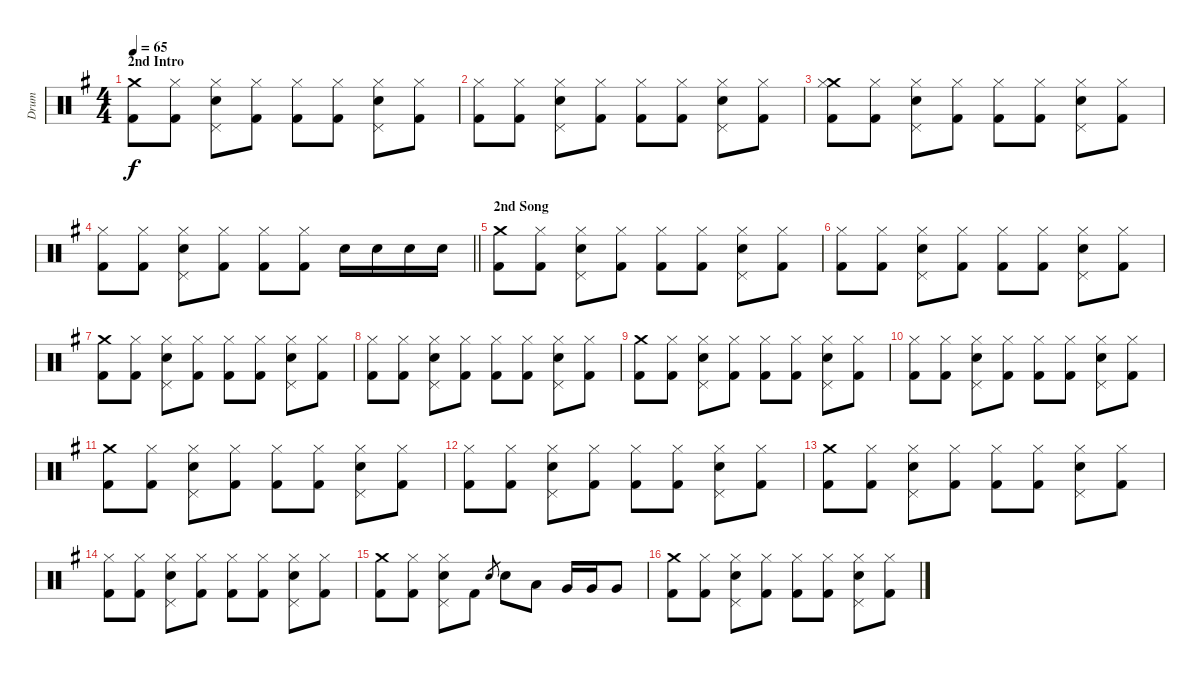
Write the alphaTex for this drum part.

\track ("Drum" "Drum") {instrument percussion}
\staff {score}
\articulation defaults
\ts (4 4)
\section ("" "2nd Intro")
\tempo 65
\clef neutral
\ks g
("Crash medium (hit)" "Kick (hit) 2").8{dy f} ("Hi-Hat (closed)" "Kick (hit) 2").8 ("Pedal Hi-Hat (hit)" "Hi-Hat (closed)" "Electric Snare (hit)").8 ("Hi-Hat (closed)" "Kick (hit) 2").8 ("Hi-Hat (closed)" "Kick (hit) 2").8 ("Hi-Hat (closed)" "Kick (hit) 2").8 ("Pedal Hi-Hat (hit)" "Hi-Hat (closed)" "Electric Snare (hit)").8 ("Hi-Hat (closed)" "Kick (hit) 2").8 |
("Hi-Hat (closed)" "Kick (hit) 2").8 ("Hi-Hat (closed)" "Kick (hit) 2").8 ("Pedal Hi-Hat (hit)" "Hi-Hat (closed)" "Electric Snare (hit)").8 ("Hi-Hat (closed)" "Kick (hit) 2").8 ("Hi-Hat (closed)" "Kick (hit) 2").8 ("Hi-Hat (closed)" "Kick (hit) 2").8 ("Pedal Hi-Hat (hit)" "Hi-Hat (closed)" "Electric Snare (hit)").8 ("Hi-Hat (closed)" "Kick (hit) 2").8 |
("Crash medium (hit)" "Hi-Hat (closed)" "Kick (hit) 2").8 ("Hi-Hat (closed)" "Kick (hit) 2").8 ("Pedal Hi-Hat (hit)" "Hi-Hat (closed)" "Electric Snare (hit)").8 ("Hi-Hat (closed)" "Kick (hit) 2").8 ("Hi-Hat (closed)" "Kick (hit) 2").8 ("Hi-Hat (closed)" "Kick (hit) 2").8 ("Pedal Hi-Hat (hit)" "Hi-Hat (closed)" "Electric Snare (hit)").8 ("Hi-Hat (closed)" "Kick (hit) 2").8 |
\barLineRight lightlight
("Hi-Hat (closed)" "Kick (hit) 2").8 ("Hi-Hat (closed)" "Kick (hit) 2").8 ("Pedal Hi-Hat (hit)" "Hi-Hat (closed)" "Electric Snare (hit)").8 ("Hi-Hat (closed)" "Kick (hit) 2").8 ("Hi-Hat (closed)" "Kick (hit) 2").8 ("Hi-Hat (closed)" "Kick (hit) 2").8 "Electric Snare (hit)".16 "Electric Snare (hit)".16 "Electric Snare (hit)".16 "Electric Snare (hit)".16 |
\section ("" "2nd Song")
("Crash medium (hit)" "Kick (hit) 2").8 ("Hi-Hat (closed)" "Kick (hit) 2").8 ("Pedal Hi-Hat (hit)" "Hi-Hat (closed)" "Electric Snare (hit)").8 ("Hi-Hat (closed)" "Kick (hit) 2").8 ("Hi-Hat (closed)" "Kick (hit) 2").8 ("Hi-Hat (closed)" "Kick (hit) 2").8 ("Pedal Hi-Hat (hit)" "Hi-Hat (closed)" "Electric Snare (hit)").8 ("Hi-Hat (closed)" "Kick (hit) 2").8 |
("Hi-Hat (closed)" "Kick (hit) 2").8 ("Hi-Hat (closed)" "Kick (hit) 2").8 ("Pedal Hi-Hat (hit)" "Hi-Hat (closed)" "Electric Snare (hit)").8 ("Hi-Hat (closed)" "Kick (hit) 2").8 ("Hi-Hat (closed)" "Kick (hit) 2").8 ("Hi-Hat (closed)" "Kick (hit) 2").8 ("Pedal Hi-Hat (hit)" "Hi-Hat (closed)" "Electric Snare (hit)").8 ("Hi-Hat (closed)" "Kick (hit) 2").8 |
("Crash medium (hit)" "Kick (hit) 2").8 ("Hi-Hat (closed)" "Kick (hit) 2").8 ("Pedal Hi-Hat (hit)" "Hi-Hat (closed)" "Electric Snare (hit)").8 ("Hi-Hat (closed)" "Kick (hit) 2").8 ("Hi-Hat (closed)" "Kick (hit) 2").8 ("Hi-Hat (closed)" "Kick (hit) 2").8 ("Pedal Hi-Hat (hit)" "Hi-Hat (closed)" "Electric Snare (hit)").8 ("Hi-Hat (closed)" "Kick (hit) 2").8 |
("Hi-Hat (closed)" "Kick (hit) 2").8 ("Hi-Hat (closed)" "Kick (hit) 2").8 ("Pedal Hi-Hat (hit)" "Hi-Hat (closed)" "Electric Snare (hit)").8 ("Hi-Hat (closed)" "Kick (hit) 2").8 ("Hi-Hat (closed)" "Kick (hit) 2").8 ("Hi-Hat (closed)" "Kick (hit) 2").8 ("Pedal Hi-Hat (hit)" "Hi-Hat (closed)" "Electric Snare (hit)").8 ("Hi-Hat (closed)" "Kick (hit) 2").8 |
("Crash medium (hit)" "Kick (hit) 2").8 ("Hi-Hat (closed)" "Kick (hit) 2").8 ("Pedal Hi-Hat (hit)" "Hi-Hat (closed)" "Electric Snare (hit)").8 ("Hi-Hat (closed)" "Kick (hit) 2").8 ("Hi-Hat (closed)" "Kick (hit) 2").8 ("Hi-Hat (closed)" "Kick (hit) 2").8 ("Pedal Hi-Hat (hit)" "Hi-Hat (closed)" "Electric Snare (hit)").8 ("Hi-Hat (closed)" "Kick (hit) 2").8 |
("Hi-Hat (closed)" "Kick (hit) 2").8 ("Hi-Hat (closed)" "Kick (hit) 2").8 ("Pedal Hi-Hat (hit)" "Hi-Hat (closed)" "Electric Snare (hit)").8 ("Hi-Hat (closed)" "Kick (hit) 2").8 ("Hi-Hat (closed)" "Kick (hit) 2").8 ("Hi-Hat (closed)" "Kick (hit) 2").8 ("Pedal Hi-Hat (hit)" "Hi-Hat (closed)" "Electric Snare (hit)").8 ("Hi-Hat (closed)" "Kick (hit) 2").8 |
("Crash medium (hit)" "Kick (hit) 2").8 ("Hi-Hat (closed)" "Kick (hit) 2").8 ("Pedal Hi-Hat (hit)" "Hi-Hat (closed)" "Electric Snare (hit)").8 ("Hi-Hat (closed)" "Kick (hit) 2").8 ("Hi-Hat (closed)" "Kick (hit) 2").8 ("Hi-Hat (closed)" "Kick (hit) 2").8 ("Pedal Hi-Hat (hit)" "Hi-Hat (closed)" "Electric Snare (hit)").8 ("Hi-Hat (closed)" "Kick (hit) 2").8 |
("Hi-Hat (closed)" "Kick (hit) 2").8 ("Hi-Hat (closed)" "Kick (hit) 2").8 ("Pedal Hi-Hat (hit)" "Hi-Hat (closed)" "Electric Snare (hit)").8 ("Hi-Hat (closed)" "Kick (hit) 2").8 ("Hi-Hat (closed)" "Kick (hit) 2").8 ("Hi-Hat (closed)" "Kick (hit) 2").8 ("Pedal Hi-Hat (hit)" "Hi-Hat (closed)" "Electric Snare (hit)").8 ("Hi-Hat (closed)" "Kick (hit) 2").8 |
("Crash medium (hit)" "Kick (hit) 2").8 ("Hi-Hat (closed)" "Kick (hit) 2").8 ("Pedal Hi-Hat (hit)" "Hi-Hat (closed)" "Electric Snare (hit)").8 ("Hi-Hat (closed)" "Kick (hit) 2").8 ("Hi-Hat (closed)" "Kick (hit) 2").8 ("Hi-Hat (closed)" "Kick (hit) 2").8 ("Pedal Hi-Hat (hit)" "Hi-Hat (closed)" "Electric Snare (hit)").8 ("Hi-Hat (closed)" "Kick (hit) 2").8 |
("Hi-Hat (closed)" "Kick (hit) 2").8 ("Hi-Hat (closed)" "Kick (hit) 2").8 ("Pedal Hi-Hat (hit)" "Hi-Hat (closed)" "Electric Snare (hit)").8 ("Hi-Hat (closed)" "Kick (hit) 2").8 ("Hi-Hat (closed)" "Kick (hit) 2").8 ("Hi-Hat (closed)" "Kick (hit) 2").8 ("Pedal Hi-Hat (hit)" "Hi-Hat (closed)" "Electric Snare (hit)").8 ("Hi-Hat (closed)" "Kick (hit) 2").8 |
("Crash medium (hit)" "Kick (hit) 2").8 ("Hi-Hat (closed)" "Kick (hit) 2").8 ("Pedal Hi-Hat (hit)" "Hi-Hat (closed)" "Electric Snare (hit)").8 "Kick (hit) 2".8 "Electric Snare (hit)".8{gr} "Electric Snare (hit)".8 "Low Tom (hit)".8 "Very Low Tom (hit)".16 "Very Low Tom (hit)".16 "Very Low Tom (hit)".8 |
("Crash medium (hit)" "Kick (hit) 2").8 ("Hi-Hat (closed)" "Kick (hit) 2").8 ("Pedal Hi-Hat (hit)" "Hi-Hat (closed)" "Electric Snare (hit)").8 ("Hi-Hat (closed)" "Kick (hit) 2").8 ("Hi-Hat (closed)" "Kick (hit) 2").8 ("Hi-Hat (closed)" "Kick (hit) 2").8 ("Pedal Hi-Hat (hit)" "Hi-Hat (closed)" "Electric Snare (hit)").8 ("Hi-Hat (closed)" "Kick (hit) 2").8
